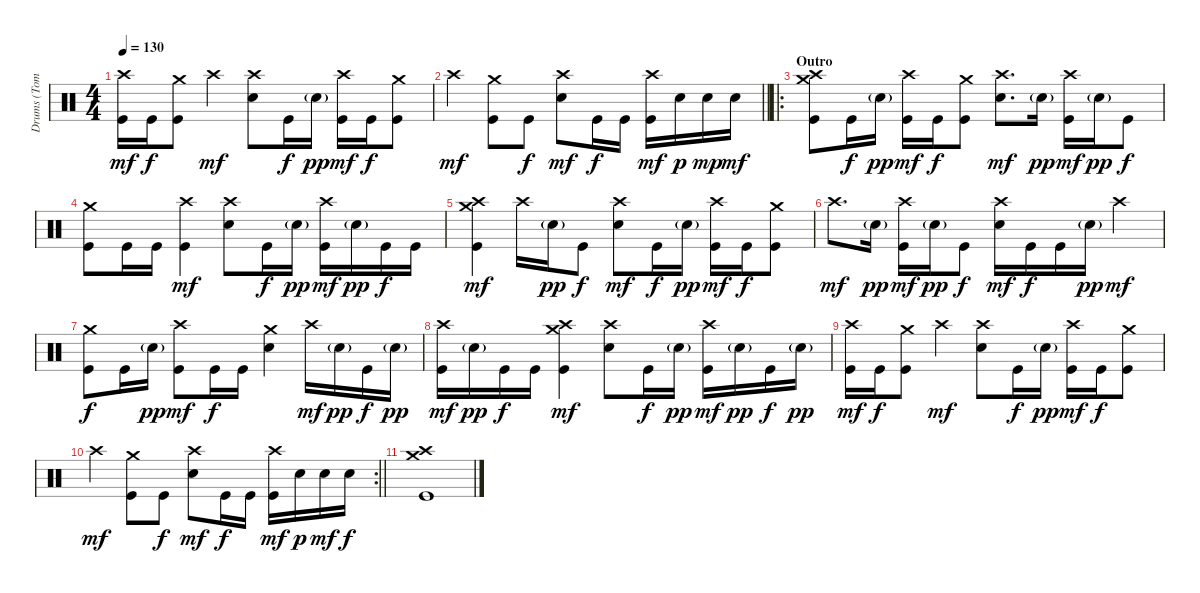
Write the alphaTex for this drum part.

\track ("Drums (Tomas Haake)" "Drums (Tom") {instrument percussion}
\staff {score}
\articulation defaults
\ts (4 4)
\tempo 130
\clef neutral
\ks c
("Crash high (hit)" "Kick (hit)").16{dy mf} "Kick (hit)".16{dy f} ("Crash medium (hit)" "Kick (hit)").8 "Crash high (hit)".4{dy mf} ("Crash high (hit)" "Electric Snare (hit)").8 "Kick (hit)".16{dy f} "Electric Snare (hit)"{g}.16{dy pp} ("Crash high (hit)" "Kick (hit)").16{dy mf} "Kick (hit)".16{dy f} ("Crash medium (hit)" "Kick (hit)").8 |
\barLineRight lightlight "Crash high (hit)".4{dy mf}
("Crash medium (hit)" "Kick (hit)").8 "Kick (hit)".8{dy f} ("Crash high (hit)" "Electric Snare (hit)").8{dy mf} "Kick (hit)".16{dy f} "Kick (hit)".16 ("Crash high (hit)" "Kick (hit)").16{dy mf} "Electric Snare (hit)".16{dy p} "Electric Snare (hit)".16{dy mp} "Electric Snare (hit)".16{dy mf} |
\ro
\section ("" "Outro")
("Crash high (hit)" "Crash medium (hit)" "Kick (hit)").8 "Kick (hit)".16{dy f} "Electric Snare (hit)"{g}.16{dy pp} ("Crash high (hit)" "Kick (hit)").16{dy mf} "Kick (hit)".16{dy f} ("Crash medium (hit)" "Kick (hit)").8 ("Crash high (hit)" "Electric Snare (hit)").8{d dy mf} "Electric Snare (hit)"{g}.16{dy pp} ("Crash high (hit)" "Kick (hit)").16{dy mf} "Electric Snare (hit)"{g}.16{dy pp} "Kick (hit)".8{dy f} |
("Crash medium (hit)" "Kick (hit)").8 "Kick (hit)".16 "Kick (hit)".16 ("Crash high (hit)" "Kick (hit)").4{dy mf} ("Crash high (hit)" "Electric Snare (hit)").8 "Kick (hit)".16{dy f} "Electric Snare (hit)"{g}.16{dy pp} ("Crash high (hit)" "Kick (hit)").16{dy mf} "Electric Snare (hit)"{g}.16{dy pp} "Kick (hit)".16{dy f} "Kick (hit)".16 |
("Crash high (hit)" "Crash medium (hit)" "Kick (hit)").4{dy mf} "Crash high (hit)".16 "Electric Snare (hit)"{g}.16{dy pp} "Kick (hit)".8{dy f} ("Crash high (hit)" "Electric Snare (hit)").8{dy mf} "Kick (hit)".16{dy f} "Electric Snare (hit)"{g}.16{dy pp} ("Crash high (hit)" "Kick (hit)").16{dy mf} "Kick (hit)".16{dy f} ("Crash medium (hit)" "Kick (hit)").8 |
"Crash high (hit)".8{d dy mf} "Electric Snare (hit)"{g}.16{dy pp} ("Crash high (hit)" "Kick (hit)").16{dy mf} "Electric Snare (hit)"{g}.16{dy pp} "Kick (hit)".8{dy f} ("Crash high (hit)" "Electric Snare (hit)").16{dy mf} "Kick (hit)".16{dy f} "Kick (hit)".16 "Electric Snare (hit)"{g}.16{dy pp} "Crash high (hit)".4{dy mf} |
("Crash medium (hit)" "Kick (hit)").8{dy f} "Kick (hit)".16 "Electric Snare (hit)"{g}.16{dy pp} ("Crash high (hit)" "Kick (hit)").8{dy mf} "Kick (hit)".16{dy f} "Kick (hit)".16 ("Crash medium (hit)" "Electric Snare (hit)").4 "Crash high (hit)".16{dy mf} "Electric Snare (hit)"{g}.16{dy pp} "Kick (hit)".16{dy f} "Electric Snare (hit)"{g}.16{dy pp} |
("Crash high (hit)" "Kick (hit)").16{dy mf} "Electric Snare (hit)"{g}.16{dy pp} "Kick (hit)".16{dy f} "Kick (hit)".16 ("Crash high (hit)" "Crash medium (hit)" "Kick (hit)").4{dy mf} ("Crash high (hit)" "Electric Snare (hit)").8 "Kick (hit)".16{dy f} "Electric Snare (hit)"{g}.16{dy pp} ("Crash high (hit)" "Kick (hit)").16{dy mf} "Electric Snare (hit)"{g}.16{dy pp} "Kick (hit)".16{dy f} "Electric Snare (hit)"{g}.16{dy pp} |
("Crash high (hit)" "Kick (hit)").16{dy mf} "Kick (hit)".16{dy f} ("Crash medium (hit)" "Kick (hit)").8 "Crash high (hit)".4{dy mf} ("Crash high (hit)" "Electric Snare (hit)").8 "Kick (hit)".16{dy f} "Electric Snare (hit)"{g}.16{dy pp} ("Crash high (hit)" "Kick (hit)").16{dy mf} "Kick (hit)".16{dy f} ("Crash medium (hit)" "Kick (hit)").8 |
\rc 2
\barLineRight lightlight "Crash high (hit)".4{dy mf}
("Crash medium (hit)" "Kick (hit)").8 "Kick (hit)".8{dy f} ("Crash high (hit)" "Electric Snare (hit)").8{dy mf} "Kick (hit)".16{dy f} "Kick (hit)".16 ("Crash high (hit)" "Kick (hit)").16{dy mf} "Electric Snare (hit)".16{dy p} "Electric Snare (hit)".16{dy mf} "Electric Snare (hit)".16{dy f} |
("Crash medium (hit)" "Crash high (hit)" "Kick (hit)").1
